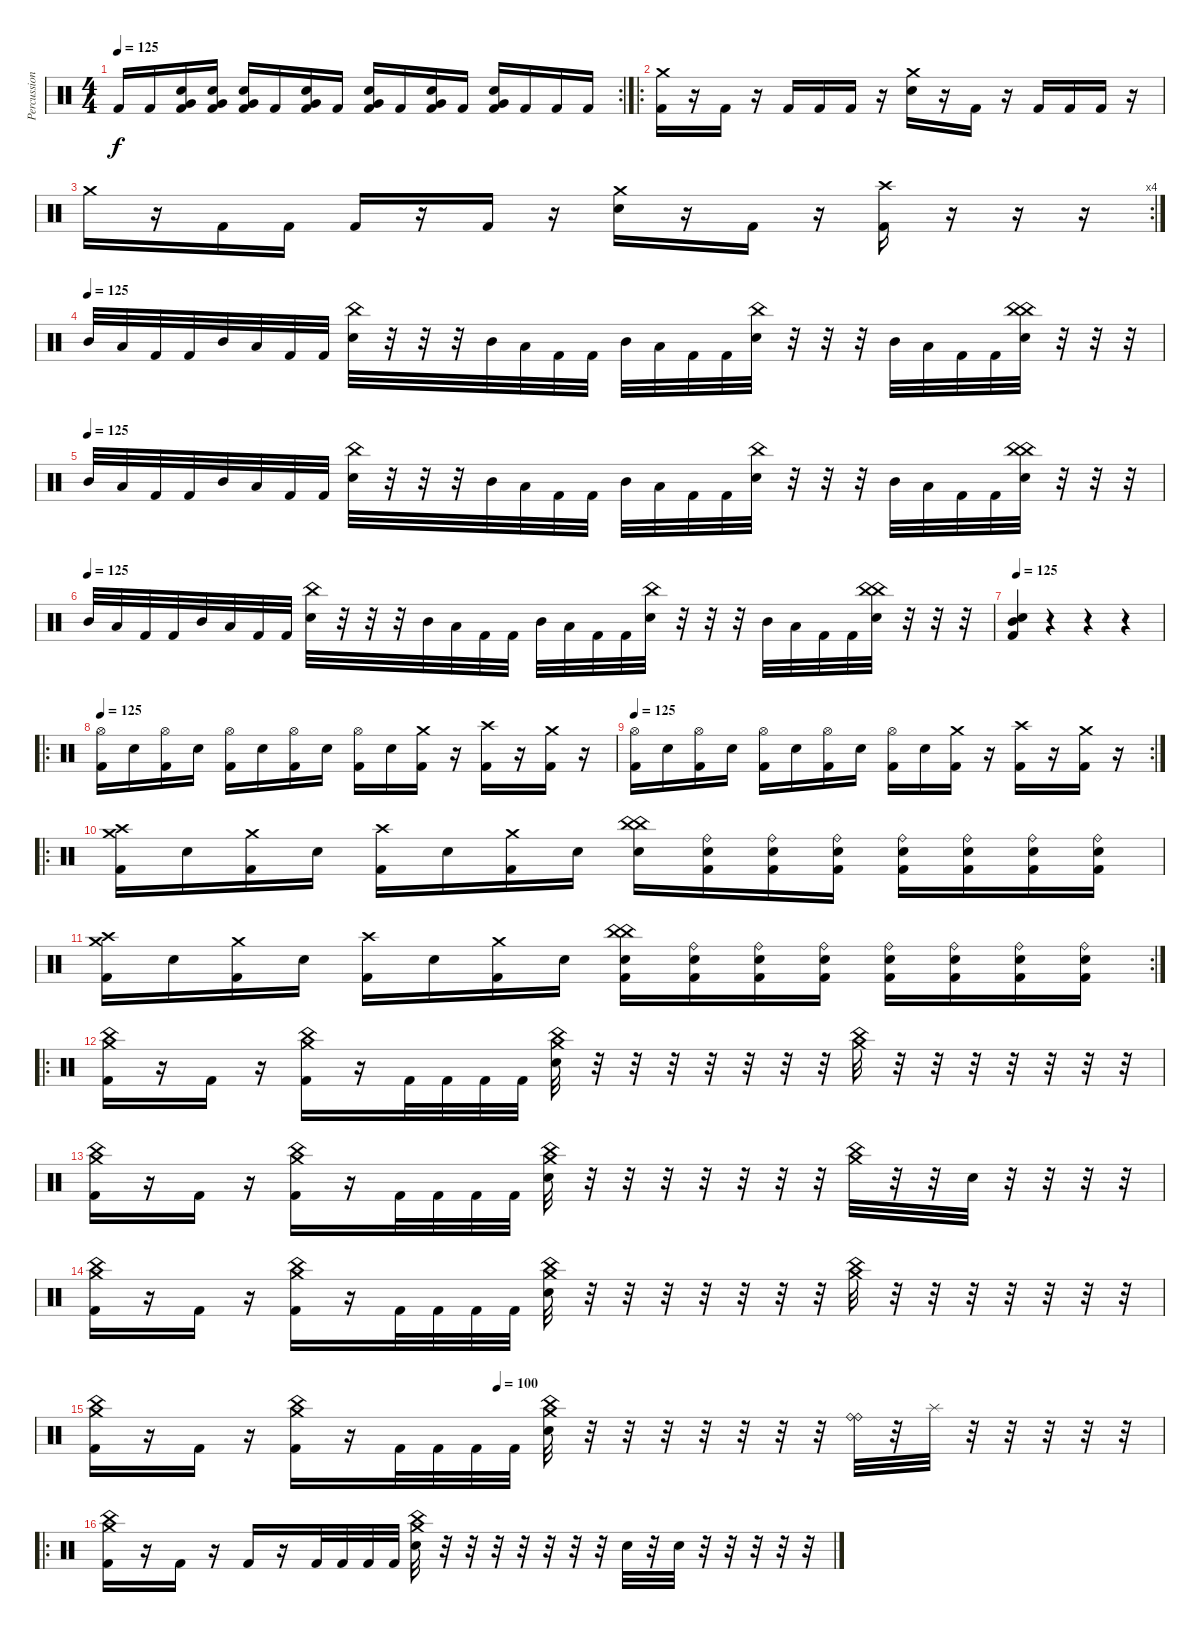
\track ("Percussion" "Percussion") {instrument percussion}
\staff {score}
\articulation defaults
\rc 2
\ts (4 4)
\tempo 125
\clef neutral
\ks c "Kick (hit) 2".16{dy f} "Kick (hit) 2".16
("Very Low Tom (hit)" "Snare (hit) 2" "Kick (hit) 2").16 ("Very Low Tom (hit)" "Snare (hit) 2" "Kick (hit) 2").16 ("Very Low Tom (hit)" "Snare (hit) 2" "Kick (hit) 2").16 "Kick (hit) 2".16 ("Very Low Tom (hit)" "Snare (hit) 2" "Kick (hit) 2").16 "Kick (hit) 2".16 ("Very Low Tom (hit)" "Snare (hit) 2" "Kick (hit) 2").16 "Kick (hit) 2".16 ("Very Low Tom (hit)" "Snare (hit) 2" "Kick (hit) 2").16 "Kick (hit) 2".16 ("Very Low Tom (hit)" "Snare (hit) 2" "Kick (hit) 2").16 "Kick (hit) 2".16 "Kick (hit) 2".16 "Kick (hit) 2".16 |
\ro
("Crash medium (hit)" "Kick (hit) 2").16 r.16 "Kick (hit) 2".16 r.16 "Kick (hit) 2".16 "Kick (hit) 2".16 "Kick (hit) 2".16 r.16 ("Crash medium (hit)" "Snare (hit) 2").16 r.16 "Kick (hit) 2".16 r.16 "Kick (hit) 2".16 "Kick (hit) 2".16 "Kick (hit) 2".16 r.16 |
\rc 4 "Crash medium (hit)".16
r.16 "Kick (hit) 2".16 "Kick (hit) 2".16 "Kick (hit) 2".16 r.16 "Kick (hit) 2".16 r.16 ("Crash medium (hit)" "Snare (hit) 2").16 r.16 "Kick (hit) 2".16 r.16 ("Crash high (hit)" "Kick (hit) 2").16 r.16 r.16 r.16 |
\tempo (125)
"Mid Tom (hit)".32 "Low Tom (hit)".32 "Kick (hit) 2".32 "Kick (hit) 2".32 "Mid Tom (hit)".32 "Low Tom (hit)".32 "Kick (hit) 2".32 "Kick (hit) 2".32 ("China (hit)" "Snare (hit) 2").32 r.32 r.32 r.32 "Mid Tom (hit)".32 "Low Tom (hit)".32 "Kick (hit) 2".32 "Kick (hit) 2".32 "Mid Tom (hit)".32 "Low Tom (hit)".32 "Kick (hit) 2".32 "Kick (hit) 2".32 ("China (hit)" "Snare (hit) 2").32 r.32 r.32 r.32 "Mid Tom (hit)".32 "Low Tom (hit)".32 "Kick (hit) 2".32 "Kick (hit) 2".32 ("China (hit)" "China (hit)" "Snare (hit) 2").32 r.32 r.32 r.32 |
\tempo (125)
"Mid Tom (hit)".32 "Low Tom (hit)".32 "Kick (hit) 2".32 "Kick (hit) 2".32 "Mid Tom (hit)".32 "Low Tom (hit)".32 "Kick (hit) 2".32 "Kick (hit) 2".32 ("China (hit)" "Snare (hit) 2").32 r.32 r.32 r.32 "Mid Tom (hit)".32 "Low Tom (hit)".32 "Kick (hit) 2".32 "Kick (hit) 2".32 "Mid Tom (hit)".32 "Low Tom (hit)".32 "Kick (hit) 2".32 "Kick (hit) 2".32 ("China (hit)" "Snare (hit) 2").32 r.32 r.32 r.32 "Mid Tom (hit)".32 "Low Tom (hit)".32 "Kick (hit) 2".32 "Kick (hit) 2".32 ("China (hit)" "China (hit)" "Snare (hit) 2").32 r.32 r.32 r.32 |
\tempo (125)
"Mid Tom (hit)".32 "Low Tom (hit)".32 "Kick (hit) 2".32 "Kick (hit) 2".32 "Mid Tom (hit)".32 "Low Tom (hit)".32 "Kick (hit) 2".32 "Kick (hit) 2".32 ("China (hit)" "Snare (hit) 2").32 r.32 r.32 r.32 "Mid Tom (hit)".32 "Low Tom (hit)".32 "Kick (hit) 2".32 "Kick (hit) 2".32 "Mid Tom (hit)".32 "Low Tom (hit)".32 "Kick (hit) 2".32 "Kick (hit) 2".32 ("China (hit)" "Snare (hit) 2").32 r.32 r.32 r.32 "Mid Tom (hit)".32 "Low Tom (hit)".32 "Kick (hit) 2".32 "Kick (hit) 2".32 ("China (hit)" "China (hit)" "Snare (hit) 2").32 r.32 r.32 r.32 |
\tempo 125
("Mid Tom (hit)" "Snare (hit) 2" "Kick (hit) 2").4 r.4 r.4 r.4 |
\ro
\tempo 125
("Hi-Hat (open)" "Kick (hit) 2").16 "Snare (hit) 2".16 ("Hi-Hat (open)" "Kick (hit) 2").16 "Snare (hit) 2".16 ("Hi-Hat (open)" "Kick (hit) 2").16 "Snare (hit) 2".16 ("Hi-Hat (open)" "Kick (hit) 2").16 "Snare (hit) 2".16 ("Hi-Hat (open)" "Kick (hit) 2").16 "Snare (hit) 2".16 ("Crash medium (hit)" "Kick (hit) 2").16 r.16 ("Crash high (hit)" "Kick (hit) 2").16 r.16 ("Crash medium (hit)" "Kick (hit) 2").16 r.16 |
\rc 2
\tempo 125
("Hi-Hat (open)" "Kick (hit) 2").16 "Snare (hit) 2".16 ("Hi-Hat (open)" "Kick (hit) 2").16 "Snare (hit) 2".16 ("Hi-Hat (open)" "Kick (hit) 2").16 "Snare (hit) 2".16 ("Hi-Hat (open)" "Kick (hit) 2").16 "Snare (hit) 2".16 ("Hi-Hat (open)" "Kick (hit) 2").16 "Snare (hit) 2".16 ("Crash medium (hit)" "Kick (hit) 2").16 r.16 ("Crash high (hit)" "Kick (hit) 2").16 r.16 ("Crash medium (hit)" "Kick (hit) 2").16 r.16 |
\ro
("Crash high (hit)" "Crash medium (hit)" "Kick (hit) 2").16 "Snare (hit) 2".16 ("Crash medium (hit)" "Kick (hit) 2").16 "Snare (hit) 2".16 ("Crash high (hit)" "Kick (hit) 2").16 "Snare (hit) 2".16 ("Crash medium (hit)" "Kick (hit) 2").16 "Snare (hit) 2".16 ("China (hit)" "China (hit)" "Snare (hit) 2").16 ("Ride (bell)" "Snare (hit) 2" "Kick (hit) 2").16 ("Ride (bell)" "Snare (hit) 2" "Kick (hit) 2").16 ("Ride (bell)" "Snare (hit) 2" "Kick (hit) 2").16 ("Ride (bell)" "Snare (hit) 2" "Kick (hit) 2").16 ("Ride (bell)" "Snare (hit) 2" "Kick (hit) 2").16 ("Ride (bell)" "Snare (hit) 2" "Kick (hit) 2").16 ("Ride (bell)" "Snare (hit) 2" "Kick (hit) 2").16 |
\rc 2
("Crash high (hit)" "Crash medium (hit)" "Kick (hit) 2").16 "Snare (hit) 2".16 ("Crash medium (hit)" "Kick (hit) 2").16 "Snare (hit) 2".16 ("Crash high (hit)" "Kick (hit) 2").16 "Snare (hit) 2".16 ("Crash medium (hit)" "Kick (hit) 2").16 "Snare (hit) 2".16 ("China (hit)" "China (hit)" "Snare (hit) 2" "Kick (hit) 2").16 ("Ride (bell)" "Snare (hit) 2" "Kick (hit) 2").16 ("Ride (bell)" "Snare (hit) 2" "Kick (hit) 2").16 ("Ride (bell)" "Snare (hit) 2" "Kick (hit) 2").16 ("Ride (bell)" "Snare (hit) 2" "Kick (hit) 2").16 ("Ride (bell)" "Snare (hit) 2" "Kick (hit) 2").16 ("Ride (bell)" "Snare (hit) 2" "Kick (hit) 2").16 ("Ride (bell)" "Snare (hit) 2" "Kick (hit) 2").16 |
\ro
("China (hit)" "Crash medium (hit)" "Kick (hit) 2").16 r.16 "Kick (hit) 2".16 r.16 ("China (hit)" "Crash medium (hit)" "Kick (hit) 2").16 r.16 "Kick (hit) 2".32 "Kick (hit) 2".32 "Kick (hit) 2".32 "Kick (hit) 2".32 ("China (hit)" "Crash medium (hit)" "Snare (hit) 2").32 r.32 r.32 r.32 r.32 r.32 r.32 r.32 ("China (hit)" "Crash medium (hit)").32 r.32 r.32 r.32 r.32 r.32 r.32 r.32 |
("China (hit)" "Crash medium (hit)" "Kick (hit) 2").16 r.16 "Kick (hit) 2".16 r.16 ("China (hit)" "Crash medium (hit)" "Kick (hit) 2").16 r.16 "Kick (hit) 2".32 "Kick (hit) 2".32 "Kick (hit) 2".32 "Kick (hit) 2".32 ("China (hit)" "Crash medium (hit)" "Snare (hit) 2").32 r.32 r.32 r.32 r.32 r.32 r.32 r.32 ("China (hit)" "Crash medium (hit)").32 r.32 r.32 "Snare (hit) 2".32 r.32 r.32 r.32 r.32 |
("China (hit)" "Crash medium (hit)" "Kick (hit) 2").16 r.16 "Kick (hit) 2".16 r.16 ("Crash medium (hit)" "China (hit)" "Kick (hit) 2").16 r.16 "Kick (hit) 2".32 "Kick (hit) 2".32 "Kick (hit) 2".32 "Kick (hit) 2".32 ("China (hit)" "Crash medium (hit)" "Snare (hit) 2").32 r.32 r.32 r.32 r.32 r.32 r.32 r.32 ("Crash medium (hit)" "China (hit)").32 r.32 r.32 r.32 r.32 r.32 r.32 r.32 |
\tempo (100 0.375)
("China (hit)" "Crash medium (hit)" "Kick (hit) 2").16 r.16 "Kick (hit) 2".16 r.16 ("China (hit)" "Crash medium (hit)" "Kick (hit) 2").16 r.16 "Kick (hit) 2".32 "Kick (hit) 2".32 "Kick (hit) 2".32 "Kick (hit) 2".32 ("China (hit)" "Crash medium (hit)" "Snare (hit) 2").32 r.32 r.32 r.32 r.32 r.32 r.32 r.32 ("Ride (bell)" "Ride (bell)").32 r.32 "Splash (hit)".32 r.32 r.32 r.32 r.32 r.32 |
\ro
("China (hit)" "Crash medium (hit)" "Kick (hit) 2").16 r.16 "Kick (hit) 2".16 r.16 "Kick (hit) 2".16 r.16 "Kick (hit) 2".32 "Kick (hit) 2".32 "Kick (hit) 2".32 "Kick (hit) 2".32 ("China (hit)" "Crash medium (hit)" "Snare (hit) 2").32 r.32 r.32 r.32 r.32 r.32 r.32 r.32 "Snare (hit) 2".32 r.32 "Snare (hit) 2".32 r.32 r.32 r.32 r.32 r.32
